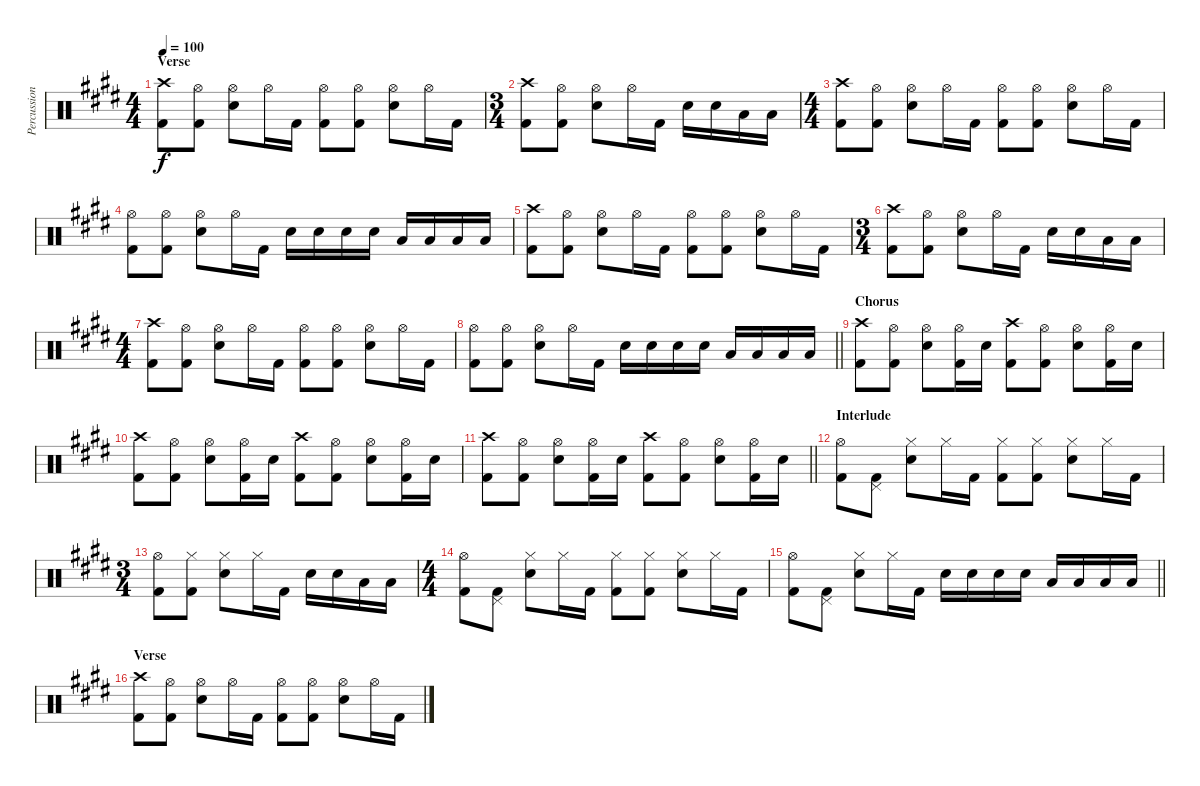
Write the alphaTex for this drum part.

\track ("Percussion" "Percussion") {instrument percussion}
\staff {score}
\articulation defaults
\ts (4 4)
\section ("" "Verse")
\tempo 100
\clef neutral
\ks e
("Crash high (hit)" "Kick (hit) 2").8{dy f} ("Hi-Hat (open)" "Kick (hit) 2").8 ("Hi-Hat (open)" "Electric Snare (hit)").8 "Hi-Hat (open)".16 "Kick (hit) 2".16 ("Hi-Hat (open)" "Kick (hit) 2").8 ("Hi-Hat (open)" "Kick (hit) 2").8 ("Hi-Hat (open)" "Electric Snare (hit)").8 "Hi-Hat (open)".16 "Kick (hit) 2".16 |
\ts (3 4)
("Crash high (hit)" "Kick (hit) 2").8 ("Hi-Hat (open)" "Kick (hit) 2").8 ("Hi-Hat (open)" "Electric Snare (hit)").8 "Hi-Hat (open)".16 "Kick (hit) 2".16 "Electric Snare (hit)".16 "Electric Snare (hit)".16 "Low Tom (hit)".16 "Low Tom (hit)".16 |
\ts (4 4)
("Crash high (hit)" "Kick (hit) 2").8 ("Hi-Hat (open)" "Kick (hit) 2").8 ("Hi-Hat (open)" "Electric Snare (hit)").8 "Hi-Hat (open)".16 "Kick (hit) 2".16 ("Hi-Hat (open)" "Kick (hit) 2").8 ("Hi-Hat (open)" "Kick (hit) 2").8 ("Hi-Hat (open)" "Electric Snare (hit)").8 "Hi-Hat (open)".16 "Kick (hit) 2".16 |
("Hi-Hat (open)" "Kick (hit) 2").8 ("Hi-Hat (open)" "Kick (hit) 2").8 ("Hi-Hat (open)" "Electric Snare (hit)").8 "Hi-Hat (open)".16 "Kick (hit) 2".16 "Electric Snare (hit)".16 "Electric Snare (hit)".16 "Electric Snare (hit)".16 "Electric Snare (hit)".16 "Low Tom (hit)".16 "Low Tom (hit)".16 "Low Tom (hit)".16 "Low Tom (hit)".16 |
("Crash high (hit)" "Kick (hit) 2").8 ("Hi-Hat (open)" "Kick (hit) 2").8 ("Hi-Hat (open)" "Electric Snare (hit)").8 "Hi-Hat (open)".16 "Kick (hit) 2".16 ("Hi-Hat (open)" "Kick (hit) 2").8 ("Hi-Hat (open)" "Kick (hit) 2").8 ("Hi-Hat (open)" "Electric Snare (hit)").8 "Hi-Hat (open)".16 "Kick (hit) 2".16 |
\ts (3 4)
("Crash high (hit)" "Kick (hit) 2").8 ("Hi-Hat (open)" "Kick (hit) 2").8 ("Hi-Hat (open)" "Electric Snare (hit)").8 "Hi-Hat (open)".16 "Kick (hit) 2".16 "Electric Snare (hit)".16 "Electric Snare (hit)".16 "Low Tom (hit)".16 "Low Tom (hit)".16 |
\ts (4 4)
("Crash high (hit)" "Kick (hit) 2").8 ("Hi-Hat (open)" "Kick (hit) 2").8 ("Hi-Hat (open)" "Electric Snare (hit)").8 "Hi-Hat (open)".16 "Kick (hit) 2".16 ("Hi-Hat (open)" "Kick (hit) 2").8 ("Hi-Hat (open)" "Kick (hit) 2").8 ("Hi-Hat (open)" "Electric Snare (hit)").8 "Hi-Hat (open)".16 "Kick (hit) 2".16 |
\barLineRight lightlight
("Hi-Hat (open)" "Kick (hit) 2").8 ("Hi-Hat (open)" "Kick (hit) 2").8 ("Hi-Hat (open)" "Electric Snare (hit)").8 "Hi-Hat (open)".16 "Kick (hit) 2".16 "Electric Snare (hit)".16 "Electric Snare (hit)".16 "Electric Snare (hit)".16 "Electric Snare (hit)".16 "Low Tom (hit)".16 "Low Tom (hit)".16 "Low Tom (hit)".16 "Low Tom (hit)".16 |
\section ("" "Chorus")
("Crash high (hit)" "Kick (hit) 2").8 ("Hi-Hat (open)" "Kick (hit) 2").8 ("Hi-Hat (open)" "Electric Snare (hit)").8 ("Hi-Hat (open)" "Kick (hit) 2").16 "Electric Snare (hit)".16 ("Crash high (hit)" "Kick (hit) 2").8 ("Hi-Hat (open)" "Kick (hit) 2").8 ("Hi-Hat (open)" "Electric Snare (hit)").8 ("Hi-Hat (open)" "Kick (hit) 2").16 "Electric Snare (hit)".16 |
("Crash high (hit)" "Kick (hit) 2").8 ("Hi-Hat (open)" "Kick (hit) 2").8 ("Hi-Hat (open)" "Electric Snare (hit)").8 ("Hi-Hat (open)" "Kick (hit) 2").16 "Electric Snare (hit)".16 ("Crash high (hit)" "Kick (hit) 2").8 ("Hi-Hat (open)" "Kick (hit) 2").8 ("Hi-Hat (open)" "Electric Snare (hit)").8 ("Hi-Hat (open)" "Kick (hit) 2").16 "Electric Snare (hit)".16 |
\barLineRight lightlight
("Crash high (hit)" "Kick (hit) 2").8 ("Hi-Hat (open)" "Kick (hit) 2").8 ("Hi-Hat (open)" "Electric Snare (hit)").8 ("Hi-Hat (open)" "Kick (hit) 2").16 "Electric Snare (hit)".16 ("Crash high (hit)" "Kick (hit) 2").8 ("Hi-Hat (open)" "Kick (hit) 2").8 ("Hi-Hat (open)" "Electric Snare (hit)").8 ("Hi-Hat (open)" "Kick (hit) 2").16 "Electric Snare (hit)".16 |
\section ("" "Interlude")
("Hi-Hat (open)" "Kick (hit) 2").8 ("Pedal Hi-Hat (hit)" "Kick (hit) 2").8 ("Hi-Hat (closed)" "Electric Snare (hit)").8 "Hi-Hat (closed)".16 "Kick (hit) 2".16 ("Hi-Hat (closed)" "Kick (hit) 2").8 ("Hi-Hat (closed)" "Kick (hit) 2").8 ("Hi-Hat (closed)" "Electric Snare (hit)").8 "Hi-Hat (closed)".16 "Kick (hit) 2".16 |
\ts (3 4)
("Hi-Hat (open)" "Kick (hit) 2").8 ("Hi-Hat (closed)" "Kick (hit) 2").8 ("Electric Snare (hit)" "Hi-Hat (closed)").8 "Hi-Hat (closed)".16 "Kick (hit) 2".16 "Electric Snare (hit)".16 "Electric Snare (hit)".16 "Low Tom (hit)".16 "Low Tom (hit)".16 |
\ts (4 4)
("Hi-Hat (open)" "Kick (hit) 2").8 ("Pedal Hi-Hat (hit)" "Kick (hit) 2").8 ("Hi-Hat (closed)" "Electric Snare (hit)").8 "Hi-Hat (closed)".16 "Kick (hit) 2".16 ("Hi-Hat (closed)" "Kick (hit) 2").8 ("Hi-Hat (closed)" "Kick (hit) 2").8 ("Hi-Hat (closed)" "Electric Snare (hit)").8 "Hi-Hat (closed)".16 "Kick (hit) 2".16 |
\barLineRight lightlight
("Hi-Hat (open)" "Kick (hit) 2").8 ("Pedal Hi-Hat (hit)" "Kick (hit) 2").8 ("Hi-Hat (closed)" "Electric Snare (hit)").8 "Hi-Hat (closed)".16 "Kick (hit) 2".16 "Electric Snare (hit)".16 "Electric Snare (hit)".16 "Electric Snare (hit)".16 "Electric Snare (hit)".16 "Low Tom (hit)".16 "Low Tom (hit)".16 "Low Tom (hit)".16 "Low Tom (hit)".16 |
\section ("" "Verse")
("Crash high (hit)" "Kick (hit) 2").8 ("Hi-Hat (open)" "Kick (hit) 2").8 ("Hi-Hat (open)" "Electric Snare (hit)").8 "Hi-Hat (open)".16 "Kick (hit) 2".16 ("Hi-Hat (open)" "Kick (hit) 2").8 ("Hi-Hat (open)" "Kick (hit) 2").8 ("Hi-Hat (open)" "Electric Snare (hit)").8 "Hi-Hat (open)".16 "Kick (hit) 2".16
